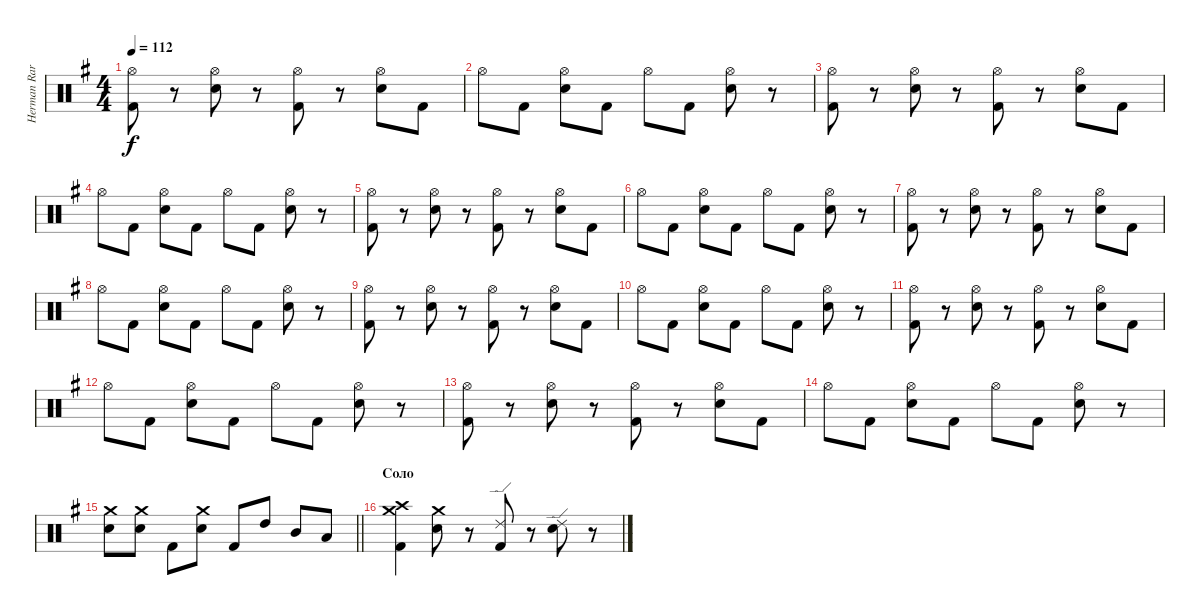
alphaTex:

\track ("Herman Rarebell" "Herman Rar") {instrument percussion}
\staff {score}
\articulation defaults
\ts (4 4)
\tempo 112
\clef neutral
\ks eminor
("Hi-Hat (open)" "Kick (hit) 2").8{dy f} r.8 ("Hi-Hat (open)" "Electric Snare (hit)").8 r.8 ("Hi-Hat (open)" "Kick (hit) 2").8 r.8 ("Hi-Hat (open)" "Electric Snare (hit)").8 "Kick (hit) 2".8 |
"Hi-Hat (open)".8 "Kick (hit) 2".8 ("Hi-Hat (open)" "Electric Snare (hit)").8 "Kick (hit) 2".8 "Hi-Hat (open)".8 "Kick (hit) 2".8 ("Hi-Hat (open)" "Electric Snare (hit)").8 r.8 |
("Hi-Hat (open)" "Kick (hit) 2").8 r.8 ("Hi-Hat (open)" "Electric Snare (hit)").8 r.8 ("Hi-Hat (open)" "Kick (hit) 2").8 r.8 ("Hi-Hat (open)" "Electric Snare (hit)").8 "Kick (hit) 2".8 |
"Hi-Hat (open)".8 "Kick (hit) 2".8 ("Hi-Hat (open)" "Electric Snare (hit)").8 "Kick (hit) 2".8 "Hi-Hat (open)".8 "Kick (hit) 2".8 ("Hi-Hat (open)" "Electric Snare (hit)").8 r.8 |
("Hi-Hat (open)" "Kick (hit) 2").8 r.8 ("Hi-Hat (open)" "Electric Snare (hit)").8 r.8 ("Hi-Hat (open)" "Kick (hit) 2").8 r.8 ("Hi-Hat (open)" "Electric Snare (hit)").8 "Kick (hit) 2".8 |
"Hi-Hat (open)".8 "Kick (hit) 2".8 ("Hi-Hat (open)" "Electric Snare (hit)").8 "Kick (hit) 2".8 "Hi-Hat (open)".8 "Kick (hit) 2".8 ("Hi-Hat (open)" "Electric Snare (hit)").8 r.8 |
("Hi-Hat (open)" "Kick (hit) 2").8 r.8 ("Hi-Hat (open)" "Electric Snare (hit)").8 r.8 ("Hi-Hat (open)" "Kick (hit) 2").8 r.8 ("Hi-Hat (open)" "Electric Snare (hit)").8 "Kick (hit) 2".8 |
"Hi-Hat (open)".8 "Kick (hit) 2".8 ("Hi-Hat (open)" "Electric Snare (hit)").8 "Kick (hit) 2".8 "Hi-Hat (open)".8 "Kick (hit) 2".8 ("Hi-Hat (open)" "Electric Snare (hit)").8 r.8 |
("Hi-Hat (open)" "Kick (hit) 2").8 r.8 ("Hi-Hat (open)" "Electric Snare (hit)").8 r.8 ("Hi-Hat (open)" "Kick (hit) 2").8 r.8 ("Hi-Hat (open)" "Electric Snare (hit)").8 "Kick (hit) 2".8 |
"Hi-Hat (open)".8 "Kick (hit) 2".8 ("Hi-Hat (open)" "Electric Snare (hit)").8 "Kick (hit) 2".8 "Hi-Hat (open)".8 "Kick (hit) 2".8 ("Hi-Hat (open)" "Electric Snare (hit)").8 r.8 |
("Hi-Hat (open)" "Kick (hit) 2").8 r.8 ("Hi-Hat (open)" "Electric Snare (hit)").8 r.8 ("Hi-Hat (open)" "Kick (hit) 2").8 r.8 ("Hi-Hat (open)" "Electric Snare (hit)").8 "Kick (hit) 2".8 |
"Hi-Hat (open)".8 "Kick (hit) 2".8 ("Hi-Hat (open)" "Electric Snare (hit)").8 "Kick (hit) 2".8 "Hi-Hat (open)".8 "Kick (hit) 2".8 ("Hi-Hat (open)" "Electric Snare (hit)").8 r.8 |
("Hi-Hat (open)" "Kick (hit) 2").8 r.8 ("Hi-Hat (open)" "Electric Snare (hit)").8 r.8 ("Hi-Hat (open)" "Kick (hit) 2").8 r.8 ("Hi-Hat (open)" "Electric Snare (hit)").8 "Kick (hit) 2".8 |
"Hi-Hat (open)".8 "Kick (hit) 2".8 ("Hi-Hat (open)" "Electric Snare (hit)").8 "Kick (hit) 2".8 "Hi-Hat (open)".8 "Kick (hit) 2".8 ("Hi-Hat (open)" "Electric Snare (hit)").8 r.8 |
\barLineRight lightlight
("Crash medium (hit)" "Electric Snare (hit)").8 ("Crash medium (hit)" "Electric Snare (hit)").8 "Kick (hit) 2".8 ("Crash medium (hit)" "Electric Snare (hit)").8 "Kick (hit) 2".8 "High Tom (hit)".8 "Mid Tom (hit)".8 "Low Tom (hit)".8 |
\section ("" "Соло")
("Crash high (hit)" "Crash medium (hit)" "Kick (hit) 2").4 ("Crash medium (hit)" "Electric Snare (hit)").8 r.8 ("Ride (edge) 2" "Kick (hit) 2").8 r.8 ("Ride (edge) 2" "Electric Snare (hit)").8 r.8
